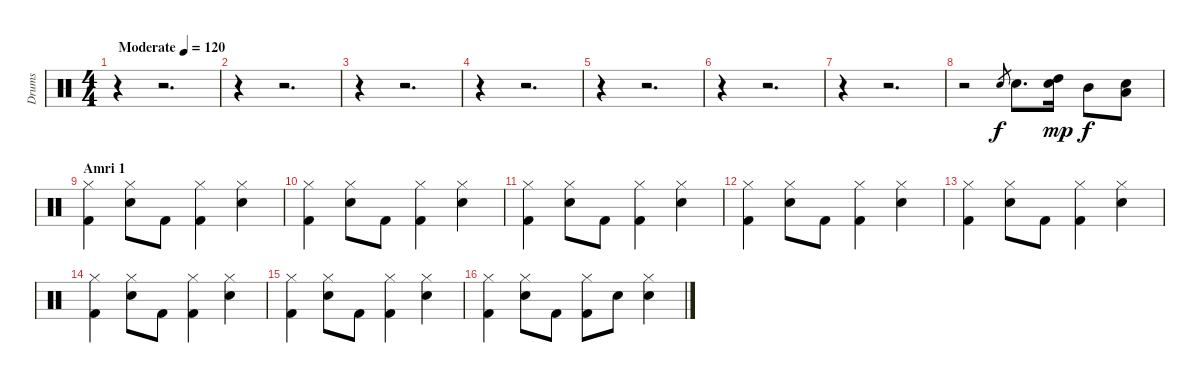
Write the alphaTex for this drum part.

\track ("Drums" "Drums") {instrument percussion}
\staff {score}
\articulation defaults
\ts (4 4)
\tempo (120 "Moderate")
\clef neutral
\ks c
r.4{dy f} r.2{d} |
r.4 r.2{d} |
r.4 r.2{d} |
r.4 r.2{d} |
r.4 r.2{d} |
r.4 r.2{d} |
r.4 r.2{d} |
r.2 "Electric Snare (hit)".8{gr} "Electric Snare (hit)".8{d} ("High Tom (hit)" "Electric Snare (hit)").16{dy mp} "Mid Tom (hit)".8{dy f} ("Electric Snare (hit)" "Low Tom (hit)").8 |
\section ("" "Amri 1")
("Kick (hit) 2" "Hi-Hat (closed)").4 ("Hi-Hat (closed)" "Electric Snare (hit)").8 "Kick (hit) 2".8 ("Kick (hit) 2" "Hi-Hat (closed)").4 ("Electric Snare (hit)" "Hi-Hat (closed)").4 |
("Kick (hit) 2" "Hi-Hat (closed)").4 ("Hi-Hat (closed)" "Electric Snare (hit)").8 "Kick (hit) 2".8 ("Kick (hit) 2" "Hi-Hat (closed)").4 ("Electric Snare (hit)" "Hi-Hat (closed)").4 |
("Kick (hit) 2" "Hi-Hat (closed)").4 ("Hi-Hat (closed)" "Electric Snare (hit)").8 "Kick (hit) 2".8 ("Kick (hit) 2" "Hi-Hat (closed)").4 ("Electric Snare (hit)" "Hi-Hat (closed)").4 |
("Kick (hit) 2" "Hi-Hat (closed)").4 ("Hi-Hat (closed)" "Electric Snare (hit)").8 "Kick (hit) 2".8 ("Kick (hit) 2" "Hi-Hat (closed)").4 ("Electric Snare (hit)" "Hi-Hat (closed)").4 |
("Kick (hit) 2" "Hi-Hat (closed)").4 ("Hi-Hat (closed)" "Electric Snare (hit)").8 "Kick (hit) 2".8 ("Kick (hit) 2" "Hi-Hat (closed)").4 ("Electric Snare (hit)" "Hi-Hat (closed)").4 |
("Kick (hit) 2" "Hi-Hat (closed)").4 ("Hi-Hat (closed)" "Electric Snare (hit)").8 "Kick (hit) 2".8 ("Kick (hit) 2" "Hi-Hat (closed)").4 ("Electric Snare (hit)" "Hi-Hat (closed)").4 |
("Kick (hit) 2" "Hi-Hat (closed)").4 ("Hi-Hat (closed)" "Electric Snare (hit)").8 "Kick (hit) 2".8 ("Kick (hit) 2" "Hi-Hat (closed)").4 ("Electric Snare (hit)" "Hi-Hat (closed)").4 |
("Kick (hit) 2" "Hi-Hat (closed)").4 ("Hi-Hat (closed)" "Electric Snare (hit)").8 "Kick (hit) 2".8 ("Kick (hit) 2" "Hi-Hat (closed)").8 "Electric Snare (hit)".8 ("Hi-Hat (closed)" "Electric Snare (hit)").4
